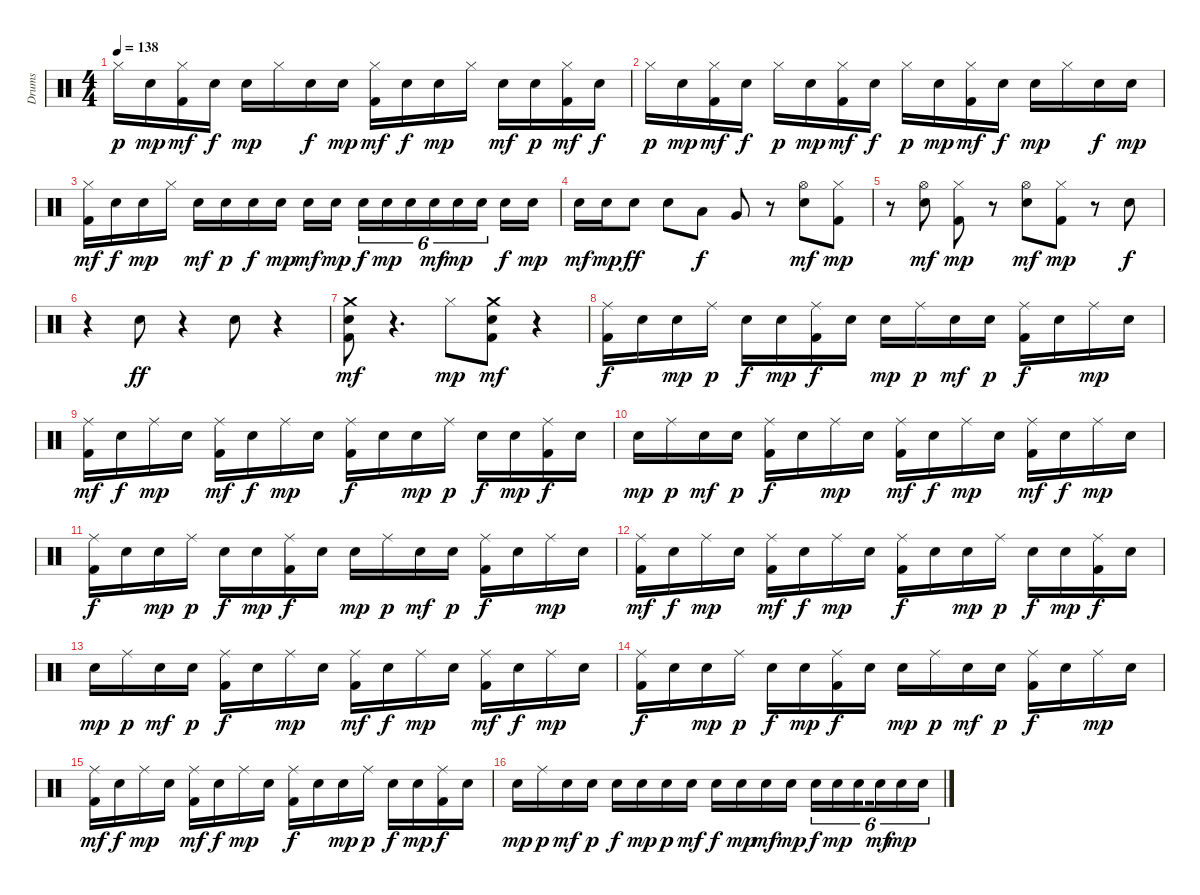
\track ("Drums" "Drums") {instrument percussion}
\staff {score}
\articulation defaults
\ts (4 4)
\tempo 138
\clef neutral
\ks c "Hi-Hat (closed)".16{dy p} "Electric Snare (hit)".16{dy mp}
("Kick (hit) 2" "Hi-Hat (closed)").16{dy mf} "Electric Snare (hit)".16{dy f} "Electric Snare (hit)".16{dy mp} "Hi-Hat (closed)".16 "Electric Snare (hit)".16{dy f} "Electric Snare (hit)".16{dy mp} ("Kick (hit) 2" "Hi-Hat (closed)").16{dy mf} "Electric Snare (hit)".16{dy f} "Electric Snare (hit)".16{dy mp} "Hi-Hat (closed)".16 "Electric Snare (hit)".16{dy mf} "Electric Snare (hit)".16{dy p} ("Kick (hit) 2" "Hi-Hat (closed)").16{dy mf} "Electric Snare (hit)".16{dy f} |
"Hi-Hat (closed)".16{dy p} "Electric Snare (hit)".16{dy mp} ("Kick (hit) 2" "Hi-Hat (closed)").16{dy mf} "Electric Snare (hit)".16{dy f} "Hi-Hat (closed)".16{dy p} "Electric Snare (hit)".16{dy mp} ("Kick (hit) 2" "Hi-Hat (closed)").16{dy mf} "Electric Snare (hit)".16{dy f} "Hi-Hat (closed)".16{dy p} "Electric Snare (hit)".16{dy mp} ("Kick (hit) 2" "Hi-Hat (closed)").16{dy mf} "Electric Snare (hit)".16{dy f} "Electric Snare (hit)".16{dy mp} "Hi-Hat (closed)".16 "Electric Snare (hit)".16{dy f} "Electric Snare (hit)".16{dy mp} |
("Kick (hit) 2" "Hi-Hat (closed)").16{dy mf} "Electric Snare (hit)".16{dy f} "Electric Snare (hit)".16{dy mp} "Hi-Hat (closed)".16 "Electric Snare (hit)".16{dy mf} "Electric Snare (hit)".16{dy p} "Electric Snare (hit)".16{dy f} "Electric Snare (hit)".16{dy mp} "Electric Snare (hit)".16{dy mf} "Electric Snare (hit)".16{dy mp beam splitsecondary} "Electric Snare (hit)".16{tu (6 4) dy f} "Electric Snare (hit)".16{tu (6 4) dy mp} "Electric Snare (hit)".16{tu (6 4)} "Electric Snare (hit)".16{tu (6 4) dy mf} "Electric Snare (hit)".16{tu (6 4) dy mp} "Electric Snare (hit)".16{tu (6 4) beam splitsecondary} "Electric Snare (hit)".16{dy f} "Electric Snare (hit)".16{dy mp} |
"Electric Snare (hit)".16{dy mf} "Electric Snare (hit)".16{dy mp} "Electric Snare (hit)".8{dy ff} "Electric Snare (hit)".8 "Low Tom (hit)".8{dy f} "Very Low Tom (hit)".8 r.8 ("Electric Snare (hit)" "Hi-Hat (open)").8{dy mf} ("Kick (hit) 2" "Hi-Hat (closed)").8{dy mp} |
r.8 ("Electric Snare (hit)" "Hi-Hat (open)").8{dy mf} ("Kick (hit) 2" "Hi-Hat (closed)").8{dy mp} r.8 ("Electric Snare (hit)" "Hi-Hat (open)").8{dy mf} ("Kick (hit) 2" "Hi-Hat (closed)").8{dy mp} r.8 "Electric Snare (hit)".8{dy f} |
r.4 "Electric Snare (hit)".8{dy ff} r.4 "Electric Snare (hit)".8 r.4 |
("Kick (hit) 2" "Electric Snare (hit)" "Crash medium (hit)").8{dy mf} r.4{d} "Hi-Hat (closed)".8{dy mp} ("Kick (hit) 2" "Electric Snare (hit)" "Crash medium (hit)").8{dy mf} r.4 |
("Kick (hit) 2" "Ride (middle)").16{dy f} "Electric Snare (hit)".16 "Electric Snare (hit)".16{dy mp} "Ride (middle)".16{dy p} "Electric Snare (hit)".16{dy f} "Electric Snare (hit)".16{dy mp} ("Kick (hit) 2" "Ride (middle)").16{dy f} "Electric Snare (hit)".16 "Electric Snare (hit)".16{dy mp} "Ride (middle)".16{dy p} "Electric Snare (hit)".16{dy mf} "Electric Snare (hit)".16{dy p} ("Kick (hit) 2" "Ride (middle)").16{dy f} "Electric Snare (hit)".16 "Ride (middle)".16{dy mp} "Electric Snare (hit)".16 |
("Kick (hit) 2" "Ride (middle)").16{dy mf} "Electric Snare (hit)".16{dy f} "Ride (middle)".16{dy mp} "Electric Snare (hit)".16 ("Kick (hit) 2" "Ride (middle)").16{dy mf} "Electric Snare (hit)".16{dy f} "Ride (middle)".16{dy mp} "Electric Snare (hit)".16 ("Kick (hit) 2" "Ride (middle)").16{dy f} "Electric Snare (hit)".16 "Electric Snare (hit)".16{dy mp} "Ride (middle)".16{dy p} "Electric Snare (hit)".16{dy f} "Electric Snare (hit)".16{dy mp} ("Kick (hit) 2" "Ride (middle)").16{dy f} "Electric Snare (hit)".16 |
"Electric Snare (hit)".16{dy mp} "Ride (middle)".16{dy p} "Electric Snare (hit)".16{dy mf} "Electric Snare (hit)".16{dy p} ("Kick (hit) 2" "Ride (middle)").16{dy f} "Electric Snare (hit)".16 "Ride (middle)".16{dy mp} "Electric Snare (hit)".16 ("Kick (hit) 2" "Ride (middle)").16{dy mf} "Electric Snare (hit)".16{dy f} "Ride (middle)".16{dy mp} "Electric Snare (hit)".16 ("Kick (hit) 2" "Ride (middle)").16{dy mf} "Electric Snare (hit)".16{dy f} "Ride (middle)".16{dy mp} "Electric Snare (hit)".16 |
("Kick (hit) 2" "Ride (middle)").16{dy f} "Electric Snare (hit)".16 "Electric Snare (hit)".16{dy mp} "Ride (middle)".16{dy p} "Electric Snare (hit)".16{dy f} "Electric Snare (hit)".16{dy mp} ("Kick (hit) 2" "Ride (middle)").16{dy f} "Electric Snare (hit)".16 "Electric Snare (hit)".16{dy mp} "Ride (middle)".16{dy p} "Electric Snare (hit)".16{dy mf} "Electric Snare (hit)".16{dy p} ("Kick (hit) 2" "Ride (middle)").16{dy f} "Electric Snare (hit)".16 "Ride (middle)".16{dy mp} "Electric Snare (hit)".16 |
("Kick (hit) 2" "Ride (middle)").16{dy mf} "Electric Snare (hit)".16{dy f} "Ride (middle)".16{dy mp} "Electric Snare (hit)".16 ("Kick (hit) 2" "Ride (middle)").16{dy mf} "Electric Snare (hit)".16{dy f} "Ride (middle)".16{dy mp} "Electric Snare (hit)".16 ("Kick (hit) 2" "Ride (middle)").16{dy f} "Electric Snare (hit)".16 "Electric Snare (hit)".16{dy mp} "Ride (middle)".16{dy p} "Electric Snare (hit)".16{dy f} "Electric Snare (hit)".16{dy mp} ("Kick (hit) 2" "Ride (middle)").16{dy f} "Electric Snare (hit)".16 |
"Electric Snare (hit)".16{dy mp} "Ride (middle)".16{dy p} "Electric Snare (hit)".16{dy mf} "Electric Snare (hit)".16{dy p} ("Kick (hit) 2" "Ride (middle)").16{dy f} "Electric Snare (hit)".16 "Ride (middle)".16{dy mp} "Electric Snare (hit)".16 ("Kick (hit) 2" "Ride (middle)").16{dy mf} "Electric Snare (hit)".16{dy f} "Ride (middle)".16{dy mp} "Electric Snare (hit)".16 ("Kick (hit) 2" "Ride (middle)").16{dy mf} "Electric Snare (hit)".16{dy f} "Ride (middle)".16{dy mp} "Electric Snare (hit)".16 |
("Kick (hit) 2" "Ride (middle)").16{dy f} "Electric Snare (hit)".16 "Electric Snare (hit)".16{dy mp} "Ride (middle)".16{dy p} "Electric Snare (hit)".16{dy f} "Electric Snare (hit)".16{dy mp} ("Kick (hit) 2" "Ride (middle)").16{dy f} "Electric Snare (hit)".16 "Electric Snare (hit)".16{dy mp} "Ride (middle)".16{dy p} "Electric Snare (hit)".16{dy mf} "Electric Snare (hit)".16{dy p} ("Kick (hit) 2" "Ride (middle)").16{dy f} "Electric Snare (hit)".16 "Ride (middle)".16{dy mp} "Electric Snare (hit)".16 |
("Kick (hit) 2" "Ride (middle)").16{dy mf} "Electric Snare (hit)".16{dy f} "Ride (middle)".16{dy mp} "Electric Snare (hit)".16 ("Kick (hit) 2" "Ride (middle)").16{dy mf} "Electric Snare (hit)".16{dy f} "Ride (middle)".16{dy mp} "Electric Snare (hit)".16 ("Kick (hit) 2" "Ride (middle)").16{dy f} "Electric Snare (hit)".16 "Electric Snare (hit)".16{dy mp} "Ride (middle)".16{dy p} "Electric Snare (hit)".16{dy f} "Electric Snare (hit)".16{dy mp} ("Kick (hit) 2" "Ride (middle)").16{dy f} "Electric Snare (hit)".16 |
"Electric Snare (hit)".16{dy mp} "Ride (middle)".16{dy p} "Electric Snare (hit)".16{dy mf} "Electric Snare (hit)".16{dy p} "Electric Snare (hit)".16{dy f} "Electric Snare (hit)".16{dy mp} "Electric Snare (hit)".16{dy p} "Electric Snare (hit)".16{dy mf} "Electric Snare (hit)".16{dy f} "Electric Snare (hit)".16{dy mp} "Electric Snare (hit)".16{dy mf} "Electric Snare (hit)".16{dy mp} "Electric Snare (hit)".16{tu (6 4) dy f} "Electric Snare (hit)".16{tu (6 4) dy mp} "Electric Snare (hit)".16{tu (6 4) beam splitsecondary} "Electric Snare (hit)".16{tu (6 4) dy mf} "Electric Snare (hit)".16{tu (6 4) dy mp} "Electric Snare (hit)".16{tu (6 4)}
